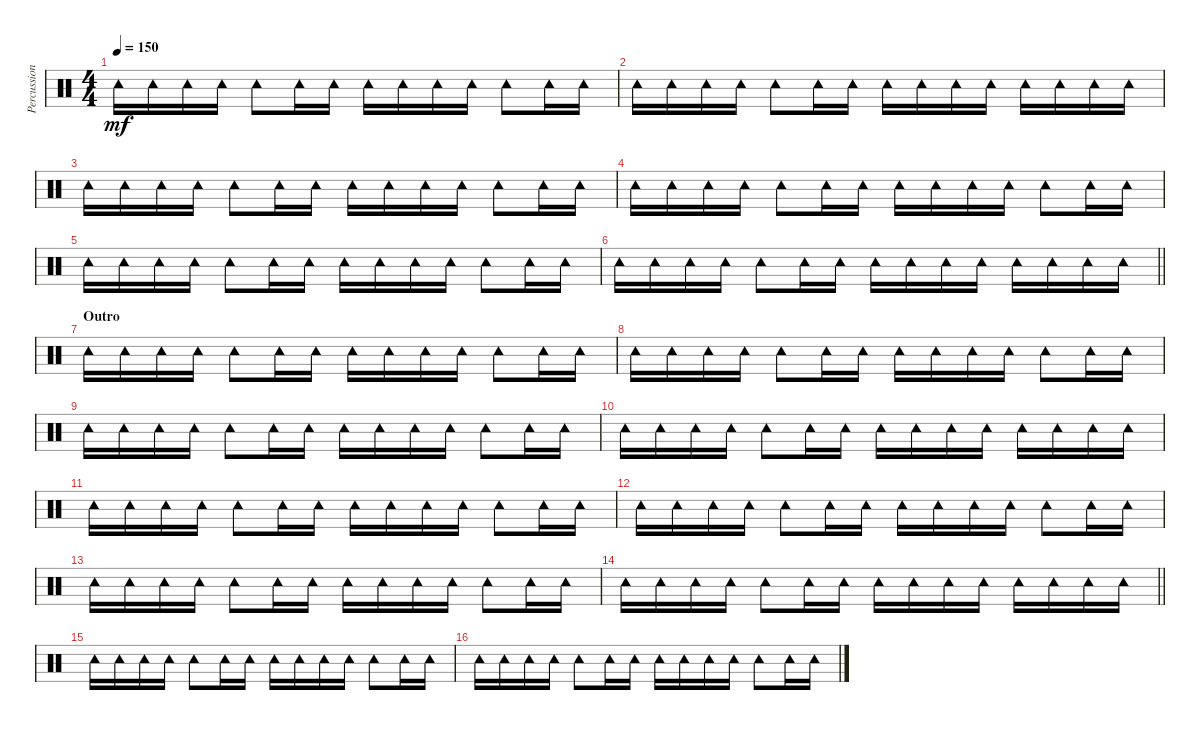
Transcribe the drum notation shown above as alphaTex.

\track ("Percussion" "Percussion") {instrument percussion}
\staff {score}
\articulation defaults
\ts (4 4)
\tempo 150
\clef neutral
\ks c "Tambourine (hit)".16{dy mf} "Tambourine (hit)".16 "Tambourine (hit)".16 "Tambourine (hit)".16 "Tambourine (hit)".8 "Tambourine (hit)".16 "Tambourine (hit)".16 "Tambourine (hit)".16 "Tambourine (hit)".16 "Tambourine (hit)".16 "Tambourine (hit)".16 "Tambourine (hit)".8 "Tambourine (hit)".16 "Tambourine (hit)".16
|
"Tambourine (hit)".16 "Tambourine (hit)".16 "Tambourine (hit)".16 "Tambourine (hit)".16 "Tambourine (hit)".8 "Tambourine (hit)".16 "Tambourine (hit)".16 "Tambourine (hit)".16 "Tambourine (hit)".16 "Tambourine (hit)".16 "Tambourine (hit)".16 "Tambourine (hit)".16 "Tambourine (hit)".16 "Tambourine (hit)".16 "Tambourine (hit)".16 |
"Tambourine (hit)".16 "Tambourine (hit)".16 "Tambourine (hit)".16 "Tambourine (hit)".16 "Tambourine (hit)".8 "Tambourine (hit)".16 "Tambourine (hit)".16 "Tambourine (hit)".16 "Tambourine (hit)".16 "Tambourine (hit)".16 "Tambourine (hit)".16 "Tambourine (hit)".8 "Tambourine (hit)".16 "Tambourine (hit)".16 |
"Tambourine (hit)".16 "Tambourine (hit)".16 "Tambourine (hit)".16 "Tambourine (hit)".16 "Tambourine (hit)".8 "Tambourine (hit)".16 "Tambourine (hit)".16 "Tambourine (hit)".16 "Tambourine (hit)".16 "Tambourine (hit)".16 "Tambourine (hit)".16 "Tambourine (hit)".8 "Tambourine (hit)".16 "Tambourine (hit)".16 |
"Tambourine (hit)".16 "Tambourine (hit)".16 "Tambourine (hit)".16 "Tambourine (hit)".16 "Tambourine (hit)".8 "Tambourine (hit)".16 "Tambourine (hit)".16 "Tambourine (hit)".16 "Tambourine (hit)".16 "Tambourine (hit)".16 "Tambourine (hit)".16 "Tambourine (hit)".8 "Tambourine (hit)".16 "Tambourine (hit)".16 |
\barLineRight lightlight "Tambourine (hit)".16 "Tambourine (hit)".16 "Tambourine (hit)".16 "Tambourine (hit)".16 "Tambourine (hit)".8 "Tambourine (hit)".16 "Tambourine (hit)".16 "Tambourine (hit)".16 "Tambourine (hit)".16 "Tambourine (hit)".16 "Tambourine (hit)".16 "Tambourine (hit)".16 "Tambourine (hit)".16 "Tambourine (hit)".16 "Tambourine (hit)".16
|
\section ("" "Outro")
"Tambourine (hit)".16 "Tambourine (hit)".16 "Tambourine (hit)".16 "Tambourine (hit)".16 "Tambourine (hit)".8 "Tambourine (hit)".16 "Tambourine (hit)".16 "Tambourine (hit)".16 "Tambourine (hit)".16 "Tambourine (hit)".16 "Tambourine (hit)".16 "Tambourine (hit)".8 "Tambourine (hit)".16 "Tambourine (hit)".16 |
"Tambourine (hit)".16 "Tambourine (hit)".16 "Tambourine (hit)".16 "Tambourine (hit)".16 "Tambourine (hit)".8 "Tambourine (hit)".16 "Tambourine (hit)".16 "Tambourine (hit)".16 "Tambourine (hit)".16 "Tambourine (hit)".16 "Tambourine (hit)".16 "Tambourine (hit)".8 "Tambourine (hit)".16 "Tambourine (hit)".16 |
"Tambourine (hit)".16 "Tambourine (hit)".16 "Tambourine (hit)".16 "Tambourine (hit)".16 "Tambourine (hit)".8 "Tambourine (hit)".16 "Tambourine (hit)".16 "Tambourine (hit)".16 "Tambourine (hit)".16 "Tambourine (hit)".16 "Tambourine (hit)".16 "Tambourine (hit)".8 "Tambourine (hit)".16 "Tambourine (hit)".16 |
"Tambourine (hit)".16 "Tambourine (hit)".16 "Tambourine (hit)".16 "Tambourine (hit)".16 "Tambourine (hit)".8 "Tambourine (hit)".16 "Tambourine (hit)".16 "Tambourine (hit)".16 "Tambourine (hit)".16 "Tambourine (hit)".16 "Tambourine (hit)".16 "Tambourine (hit)".16 "Tambourine (hit)".16 "Tambourine (hit)".16 "Tambourine (hit)".16 |
"Tambourine (hit)".16 "Tambourine (hit)".16 "Tambourine (hit)".16 "Tambourine (hit)".16 "Tambourine (hit)".8 "Tambourine (hit)".16 "Tambourine (hit)".16 "Tambourine (hit)".16 "Tambourine (hit)".16 "Tambourine (hit)".16 "Tambourine (hit)".16 "Tambourine (hit)".8 "Tambourine (hit)".16 "Tambourine (hit)".16 |
"Tambourine (hit)".16 "Tambourine (hit)".16 "Tambourine (hit)".16 "Tambourine (hit)".16 "Tambourine (hit)".8 "Tambourine (hit)".16 "Tambourine (hit)".16 "Tambourine (hit)".16 "Tambourine (hit)".16 "Tambourine (hit)".16 "Tambourine (hit)".16 "Tambourine (hit)".8 "Tambourine (hit)".16 "Tambourine (hit)".16 |
"Tambourine (hit)".16 "Tambourine (hit)".16 "Tambourine (hit)".16 "Tambourine (hit)".16 "Tambourine (hit)".8 "Tambourine (hit)".16 "Tambourine (hit)".16 "Tambourine (hit)".16 "Tambourine (hit)".16 "Tambourine (hit)".16 "Tambourine (hit)".16 "Tambourine (hit)".8 "Tambourine (hit)".16 "Tambourine (hit)".16 |
\barLineRight lightlight "Tambourine (hit)".16 "Tambourine (hit)".16 "Tambourine (hit)".16 "Tambourine (hit)".16 "Tambourine (hit)".8 "Tambourine (hit)".16 "Tambourine (hit)".16 "Tambourine (hit)".16 "Tambourine (hit)".16 "Tambourine (hit)".16 "Tambourine (hit)".16 "Tambourine (hit)".16 "Tambourine (hit)".16 "Tambourine (hit)".16 "Tambourine (hit)".16
|
"Tambourine (hit)".16 "Tambourine (hit)".16 "Tambourine (hit)".16 "Tambourine (hit)".16 "Tambourine (hit)".8 "Tambourine (hit)".16 "Tambourine (hit)".16 "Tambourine (hit)".16 "Tambourine (hit)".16 "Tambourine (hit)".16 "Tambourine (hit)".16 "Tambourine (hit)".8 "Tambourine (hit)".16 "Tambourine (hit)".16 |
"Tambourine (hit)".16 "Tambourine (hit)".16 "Tambourine (hit)".16 "Tambourine (hit)".16 "Tambourine (hit)".8 "Tambourine (hit)".16 "Tambourine (hit)".16 "Tambourine (hit)".16 "Tambourine (hit)".16 "Tambourine (hit)".16 "Tambourine (hit)".16 "Tambourine (hit)".8 "Tambourine (hit)".16 "Tambourine (hit)".16
